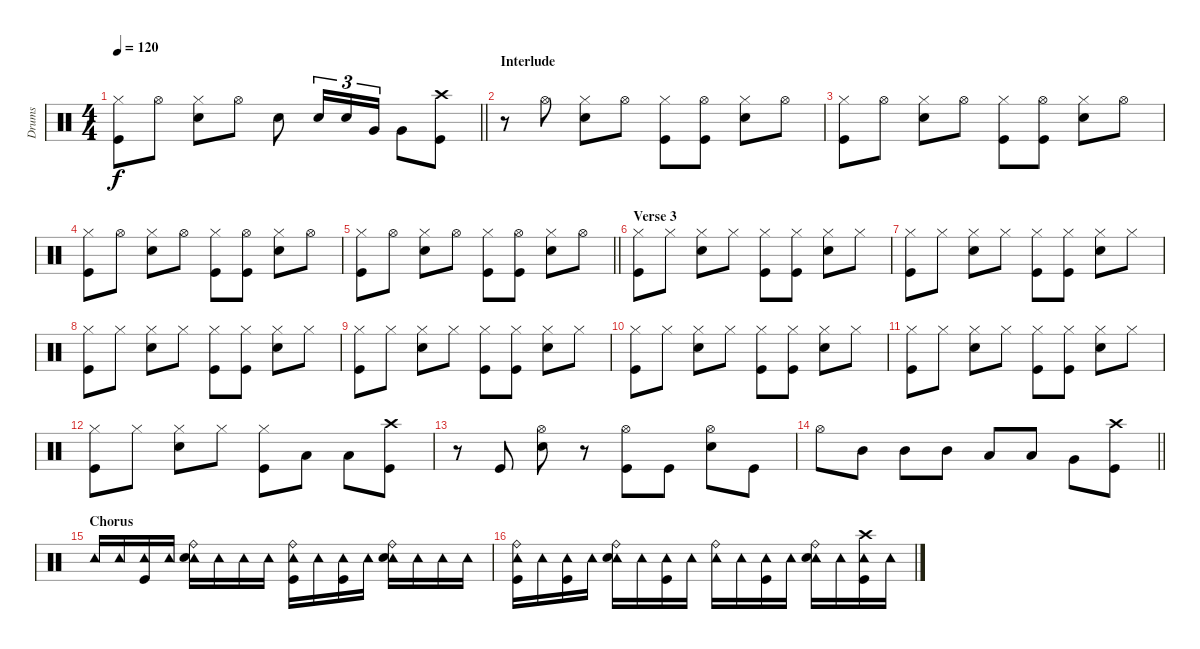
\track ("Drums" "Drums") {instrument percussion}
\staff {score}
\articulation defaults
\ts (4 4)
\tempo 120
\clef neutral
\barLineRight lightlight
\ks c
("Hi-Hat (closed)" "Kick (hit)").8{dy f} "Hi-Hat (open)".8 ("Hi-Hat (closed)" "Snare (hit) 2").8 "Hi-Hat (open)".8 "Snare (hit) 2".8 "Snare (hit) 2".16{tu (3 2)} "Snare (hit) 2".16{tu (3 2)} "Very Low Tom (hit)".16{tu (3 2)} "Very Low Tom (hit)".8 ("Crash high (hit)" "Kick (hit)").8 |
\section ("" "Interlude")
r.8 "Hi-Hat (open)".8 ("Hi-Hat (closed)" "Snare (hit) 2").8 "Hi-Hat (open)".8 ("Hi-Hat (closed)" "Kick (hit)").8 ("Hi-Hat (open)" "Kick (hit)").8 ("Hi-Hat (closed)" "Snare (hit) 2").8 "Hi-Hat (open)".8 |
("Hi-Hat (closed)" "Kick (hit)").8 "Hi-Hat (open)".8 ("Hi-Hat (closed)" "Snare (hit) 2").8 "Hi-Hat (open)".8 ("Hi-Hat (closed)" "Kick (hit)").8 ("Hi-Hat (open)" "Kick (hit)").8 ("Hi-Hat (closed)" "Snare (hit) 2").8 "Hi-Hat (open)".8 |
("Hi-Hat (closed)" "Kick (hit)").8 "Hi-Hat (open)".8 ("Hi-Hat (closed)" "Snare (hit) 2").8 "Hi-Hat (open)".8 ("Hi-Hat (closed)" "Kick (hit)").8 ("Hi-Hat (open)" "Kick (hit)").8 ("Hi-Hat (closed)" "Snare (hit) 2").8 "Hi-Hat (open)".8 |
\barLineRight lightlight
("Hi-Hat (closed)" "Kick (hit)").8 "Hi-Hat (open)".8 ("Hi-Hat (closed)" "Snare (hit) 2").8 "Hi-Hat (open)".8 ("Hi-Hat (closed)" "Kick (hit)").8 ("Hi-Hat (open)" "Kick (hit)").8 ("Hi-Hat (closed)" "Snare (hit) 2").8 "Hi-Hat (open)".8 |
\section ("" "Verse 3")
("Hi-Hat (closed)" "Kick (hit)").8 "Hi-Hat (closed)".8 ("Hi-Hat (closed)" "Snare (hit) 2").8 "Hi-Hat (closed)".8 ("Hi-Hat (closed)" "Kick (hit)").8 ("Hi-Hat (closed)" "Kick (hit)").8 ("Hi-Hat (closed)" "Snare (hit) 2").8 "Hi-Hat (closed)".8 |
("Hi-Hat (closed)" "Kick (hit)").8 "Hi-Hat (closed)".8 ("Hi-Hat (closed)" "Snare (hit) 2").8 "Hi-Hat (closed)".8 ("Hi-Hat (closed)" "Kick (hit)").8 ("Hi-Hat (closed)" "Kick (hit)").8 ("Hi-Hat (closed)" "Snare (hit) 2").8 "Hi-Hat (closed)".8 |
("Hi-Hat (closed)" "Kick (hit)").8 "Hi-Hat (closed)".8 ("Hi-Hat (closed)" "Snare (hit) 2").8 "Hi-Hat (closed)".8 ("Hi-Hat (closed)" "Kick (hit)").8 ("Hi-Hat (closed)" "Kick (hit)").8 ("Hi-Hat (closed)" "Snare (hit) 2").8 "Hi-Hat (closed)".8 |
("Hi-Hat (closed)" "Kick (hit)").8 "Hi-Hat (closed)".8 ("Hi-Hat (closed)" "Snare (hit) 2").8 "Hi-Hat (closed)".8 ("Hi-Hat (closed)" "Kick (hit)").8 ("Hi-Hat (closed)" "Kick (hit)").8 ("Hi-Hat (closed)" "Snare (hit) 2").8 "Hi-Hat (closed)".8 |
("Hi-Hat (closed)" "Kick (hit)").8 "Hi-Hat (closed)".8 ("Hi-Hat (closed)" "Snare (hit) 2").8 "Hi-Hat (closed)".8 ("Hi-Hat (closed)" "Kick (hit)").8 ("Hi-Hat (closed)" "Kick (hit)").8 ("Hi-Hat (closed)" "Snare (hit) 2").8 "Hi-Hat (closed)".8 |
("Hi-Hat (closed)" "Kick (hit)").8 "Hi-Hat (closed)".8 ("Hi-Hat (closed)" "Snare (hit) 2").8 "Hi-Hat (closed)".8 ("Hi-Hat (closed)" "Kick (hit)").8 ("Hi-Hat (closed)" "Kick (hit)").8 ("Hi-Hat (closed)" "Snare (hit) 2").8 "Hi-Hat (closed)".8 |
("Hi-Hat (closed)" "Kick (hit)").8 "Hi-Hat (closed)".8 ("Snare (hit) 2" "Hi-Hat (closed)").8 "Hi-Hat (closed)".8 ("Hi-Hat (closed)" "Kick (hit)").8 "Low Tom (hit)".8 "Low Tom (hit)".8 ("Crash high (hit)" "Kick (hit)").8 |
r.8 "Kick (hit)".8 ("Hi-Hat (open)" "Snare (hit) 2").8 r.8 ("Hi-Hat (open)" "Kick (hit)").8 "Kick (hit)".8 ("Hi-Hat (open)" "Snare (hit) 2").8 "Kick (hit)".8 |
\barLineRight lightlight "Hi-Hat (open)".8 "Mid Tom (hit)".8 "Mid Tom (hit)".8 "Mid Tom (hit)".8 "Low Tom (hit)".8 "Low Tom (hit)".8 "Very Low Tom (hit)".8
("Crash high (hit)" "Kick (hit)").8 |
\section ("" "Chorus")
"Tambourine (hit)".16 "Tambourine (hit)".16 ("Tambourine (hit)" "Kick (hit)").16 "Tambourine (hit)".16 ("Tambourine (hit)" "Ride (bell)" "Snare (hit) 2").16 "Tambourine (hit)".16 "Tambourine (hit)".16 "Tambourine (hit)".16 ("Tambourine (hit)" "Ride (bell)" "Kick (hit)").16 "Tambourine (hit)".16 ("Tambourine (hit)" "Kick (hit)").16 "Tambourine (hit)".16 ("Tambourine (hit)" "Ride (bell)" "Snare (hit) 2").16 "Tambourine (hit)".16 "Tambourine (hit)".16 "Tambourine (hit)".16 |
("Tambourine (hit)" "Ride (bell)" "Kick (hit)").16 "Tambourine (hit)".16 ("Tambourine (hit)" "Kick (hit)").16 "Tambourine (hit)".16 ("Tambourine (hit)" "Ride (bell)" "Snare (hit) 2").16 "Tambourine (hit)".16 ("Tambourine (hit)" "Kick (hit)").16 "Tambourine (hit)".16 ("Tambourine (hit)" "Ride (bell)").16 "Tambourine (hit)".16 ("Tambourine (hit)" "Kick (hit)").16 "Tambourine (hit)".16 ("Tambourine (hit)" "Ride (bell)" "Snare (hit) 2").16 "Tambourine (hit)".16 ("Tambourine (hit)" "Crash high (hit)" "Kick (hit)").16 "Tambourine (hit)".16
